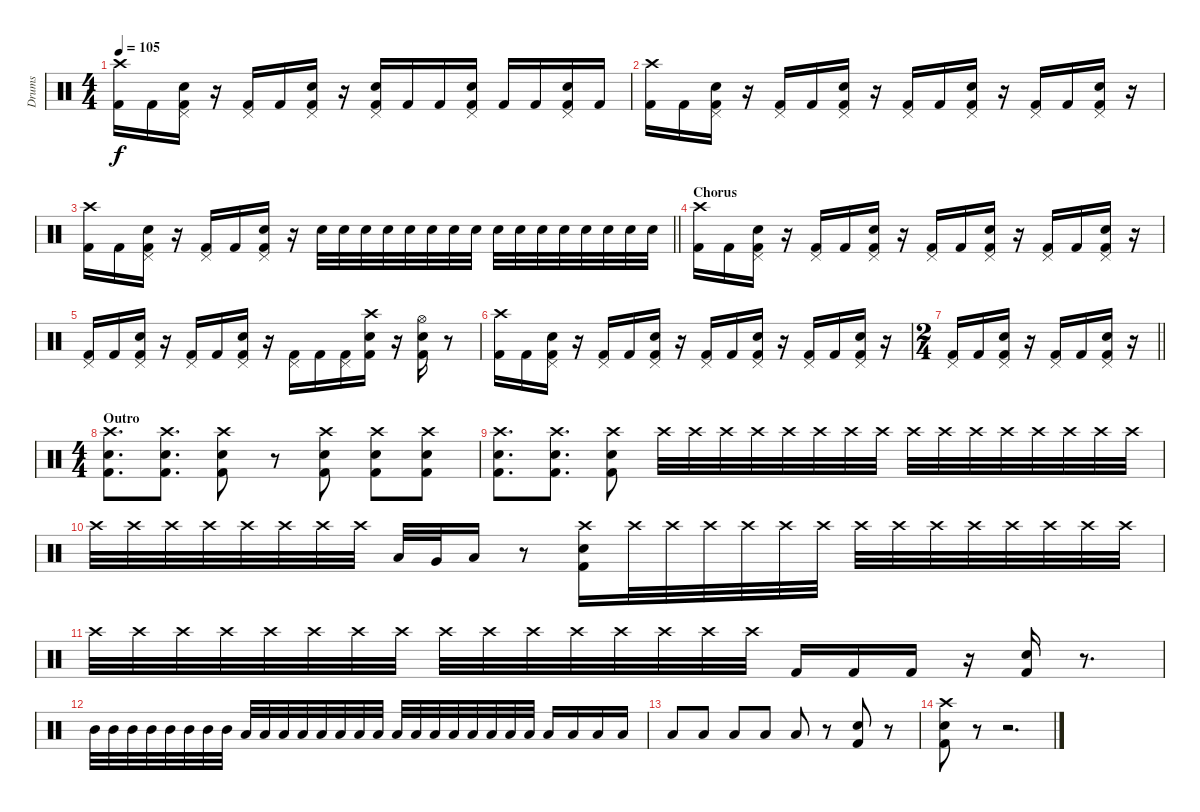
\track ("Drums" "Drums") {instrument percussion}
\staff {score}
\articulation defaults
\ts (4 4)
\tempo 105
\clef neutral
\ks c
("Crash high (hit)" "Kick (hit) 2").16{dy f} "Kick (hit) 2".16 ("Pedal Hi-Hat (hit)" "Snare (hit) 2" "Kick (hit) 2").16 r.16 ("Pedal Hi-Hat (hit)" "Kick (hit) 2").16 "Kick (hit) 2".16 ("Pedal Hi-Hat (hit)" "Snare (hit) 2" "Kick (hit) 2").16 r.16 ("Pedal Hi-Hat (hit)" "Snare (hit) 2" "Kick (hit) 2").16 "Kick (hit) 2".16 "Kick (hit) 2".16 ("Pedal Hi-Hat (hit)" "Snare (hit) 2" "Kick (hit) 2").16 "Kick (hit) 2".16 "Kick (hit) 2".16 ("Pedal Hi-Hat (hit)" "Snare (hit) 2" "Kick (hit) 2").16 "Kick (hit) 2".16 |
("Crash high (hit)" "Kick (hit) 2").16 "Kick (hit) 2".16 ("Pedal Hi-Hat (hit)" "Snare (hit) 2" "Kick (hit) 2").16 r.16 ("Pedal Hi-Hat (hit)" "Kick (hit) 2").16 "Kick (hit) 2".16 ("Pedal Hi-Hat (hit)" "Snare (hit) 2" "Kick (hit) 2").16 r.16 ("Pedal Hi-Hat (hit)" "Kick (hit) 2").16 "Kick (hit) 2".16 ("Pedal Hi-Hat (hit)" "Snare (hit) 2" "Kick (hit) 2").16 r.16 ("Pedal Hi-Hat (hit)" "Kick (hit) 2").16 "Kick (hit) 2".16 ("Pedal Hi-Hat (hit)" "Snare (hit) 2" "Kick (hit) 2").16 r.16 |
\barLineRight lightlight
("Crash high (hit)" "Kick (hit) 2").16 "Kick (hit) 2".16 ("Pedal Hi-Hat (hit)" "Snare (hit) 2" "Kick (hit) 2").16 r.16 ("Pedal Hi-Hat (hit)" "Kick (hit) 2").16 "Kick (hit) 2".16 ("Pedal Hi-Hat (hit)" "Snare (hit) 2" "Kick (hit) 2").16 r.16 "Snare (hit) 2".32 "Snare (hit) 2".32 "Snare (hit) 2".32 "Snare (hit) 2".32 "Snare (hit) 2".32 "Snare (hit) 2".32 "Snare (hit) 2".32 "Snare (hit) 2".32 "Snare (hit) 2".32 "Snare (hit) 2".32 "Snare (hit) 2".32 "Snare (hit) 2".32 "Snare (hit) 2".32 "Snare (hit) 2".32 "Snare (hit) 2".32 "Snare (hit) 2".32 |
\section ("" "Chorus")
("Crash high (hit)" "Kick (hit) 2").16 "Kick (hit) 2".16 ("Pedal Hi-Hat (hit)" "Snare (hit) 2" "Kick (hit) 2").16 r.16 ("Pedal Hi-Hat (hit)" "Kick (hit) 2").16 "Kick (hit) 2".16 ("Pedal Hi-Hat (hit)" "Snare (hit) 2" "Kick (hit) 2").16 r.16 ("Pedal Hi-Hat (hit)" "Kick (hit) 2").16 "Kick (hit) 2".16 ("Pedal Hi-Hat (hit)" "Snare (hit) 2" "Kick (hit) 2").16 r.16 ("Pedal Hi-Hat (hit)" "Kick (hit) 2").16 "Kick (hit) 2".16 ("Pedal Hi-Hat (hit)" "Snare (hit) 2" "Kick (hit) 2").16 r.16 |
("Pedal Hi-Hat (hit)" "Kick (hit) 2").16 "Kick (hit) 2".16 ("Pedal Hi-Hat (hit)" "Snare (hit) 2" "Kick (hit) 2").16 r.16 ("Pedal Hi-Hat (hit)" "Kick (hit) 2").16 "Kick (hit) 2".16 ("Pedal Hi-Hat (hit)" "Snare (hit) 2" "Kick (hit) 2").16 r.16 ("Pedal Hi-Hat (hit)" "Kick (hit) 2").16 "Kick (hit) 2".16 ("Pedal Hi-Hat (hit)" "Kick (hit) 2").16 ("Crash high (hit)" "Snare (hit) 2" "Kick (hit) 2").16 r.16 ("Hi-Hat (open)" "Snare (hit) 2" "Kick (hit) 2").16 r.8 |
("Crash high (hit)" "Kick (hit) 2").16 "Kick (hit) 2".16 ("Pedal Hi-Hat (hit)" "Snare (hit) 2" "Kick (hit) 2").16 r.16 ("Pedal Hi-Hat (hit)" "Kick (hit) 2").16 "Kick (hit) 2".16 ("Pedal Hi-Hat (hit)" "Snare (hit) 2" "Kick (hit) 2").16 r.16 ("Pedal Hi-Hat (hit)" "Kick (hit) 2").16 "Kick (hit) 2".16 ("Pedal Hi-Hat (hit)" "Snare (hit) 2" "Kick (hit) 2").16 r.16 ("Pedal Hi-Hat (hit)" "Kick (hit) 2").16 "Kick (hit) 2".16 ("Pedal Hi-Hat (hit)" "Snare (hit) 2" "Kick (hit) 2").16 r.16 |
\ts (2 4)
\barLineRight lightlight
("Pedal Hi-Hat (hit)" "Kick (hit) 2").16 "Kick (hit) 2".16 ("Pedal Hi-Hat (hit)" "Snare (hit) 2" "Kick (hit) 2").16 r.16 ("Pedal Hi-Hat (hit)" "Kick (hit) 2").16 "Kick (hit) 2".16 ("Pedal Hi-Hat (hit)" "Snare (hit) 2" "Kick (hit) 2").16 r.16 |
\ts (4 4)
\section ("" "Outro")
("Crash high (hit)" "Snare (hit) 2" "Kick (hit) 2").8{d} ("Crash high (hit)" "Snare (hit) 2" "Kick (hit) 2").8{d} ("Crash high (hit)" "Snare (hit) 2" "Kick (hit) 2").8 r.8 ("Crash high (hit)" "Snare (hit) 2" "Kick (hit) 2").8 ("Crash high (hit)" "Snare (hit) 2" "Kick (hit) 2").8 ("Crash high (hit)" "Snare (hit) 2" "Kick (hit) 2").8 |
("Crash high (hit)" "Snare (hit) 2" "Kick (hit) 2").8{d} ("Crash high (hit)" "Snare (hit) 2" "Kick (hit) 2").8{d} ("Crash high (hit)" "Snare (hit) 2" "Kick (hit) 2").8 "Crash high (hit)".32 "Crash high (hit)".32 "Crash high (hit)".32 "Crash high (hit)".32 "Crash high (hit)".32 "Crash high (hit)".32 "Crash high (hit)".32 "Crash high (hit)".32 "Crash high (hit)".32 "Crash high (hit)".32 "Crash high (hit)".32 "Crash high (hit)".32 "Crash high (hit)".32 "Crash high (hit)".32 "Crash high (hit)".32 "Crash high (hit)".32 |
"Crash high (hit)".32 "Crash high (hit)".32 "Crash high (hit)".32 "Crash high (hit)".32 "Crash high (hit)".32 "Crash high (hit)".32 "Crash high (hit)".32 "Crash high (hit)".32 "Low Tom (hit)".32 "Very Low Tom (hit)".32 "Low Floor Tom (hit)".16 r.8 ("Crash high (hit)" "Snare (hit) 2" "Kick (hit) 2").16 "Crash high (hit)".32 "Crash high (hit)".32 "Crash high (hit)".32 "Crash high (hit)".32 "Crash high (hit)".32 "Crash high (hit)".32 "Crash high (hit)".32 "Crash high (hit)".32 "Crash high (hit)".32 "Crash high (hit)".32 "Crash high (hit)".32 "Crash high (hit)".32 "Crash high (hit)".32 "Crash high (hit)".32 |
"Crash high (hit)".32 "Crash high (hit)".32 "Crash high (hit)".32 "Crash high (hit)".32 "Crash high (hit)".32 "Crash high (hit)".32 "Crash high (hit)".32 "Crash high (hit)".32 "Crash high (hit)".32 "Crash high (hit)".32 "Crash high (hit)".32 "Crash high (hit)".32 "Crash high (hit)".32 "Crash high (hit)".32 "Crash high (hit)".32 "Crash high (hit)".32 "Kick (hit) 2".16 "Kick (hit) 2".16 "Kick (hit) 2".16 r.16 ("Snare (hit) 2" "Kick (hit) 2").16 r.8{d} |
"Mid Tom (hit)".32 "Mid Tom (hit)".32 "Mid Tom (hit)".32 "Mid Tom (hit)".32 "Mid Tom (hit)".32 "Mid Tom (hit)".32 "Mid Tom (hit)".32 "Mid Tom (hit)".32 "Low Tom (hit)".32 "Low Tom (hit)".32 "Low Tom (hit)".32 "Low Tom (hit)".32 "Low Tom (hit)".32 "Low Tom (hit)".32 "Low Tom (hit)".32 "Low Tom (hit)".32 "Low Tom (hit)".32 "Low Tom (hit)".32 "Low Tom (hit)".32 "Low Tom (hit)".32 "Low Tom (hit)".32 "Low Tom (hit)".32 "Low Tom (hit)".32 "Low Tom (hit)".32 "Low Tom (hit)".16 "Low Tom (hit)".16 "Low Tom (hit)".16 "Low Tom (hit)".16 |
"Low Tom (hit)".8 "Low Tom (hit)".8 "Low Tom (hit)".8 "Low Tom (hit)".8 "Low Tom (hit)".8 r.8 ("Snare (hit) 2" "Kick (hit) 2").8 r.8 |
("Crash high (hit)" "Snare (hit) 2" "Kick (hit) 2").8 r.8 r.2{d}
